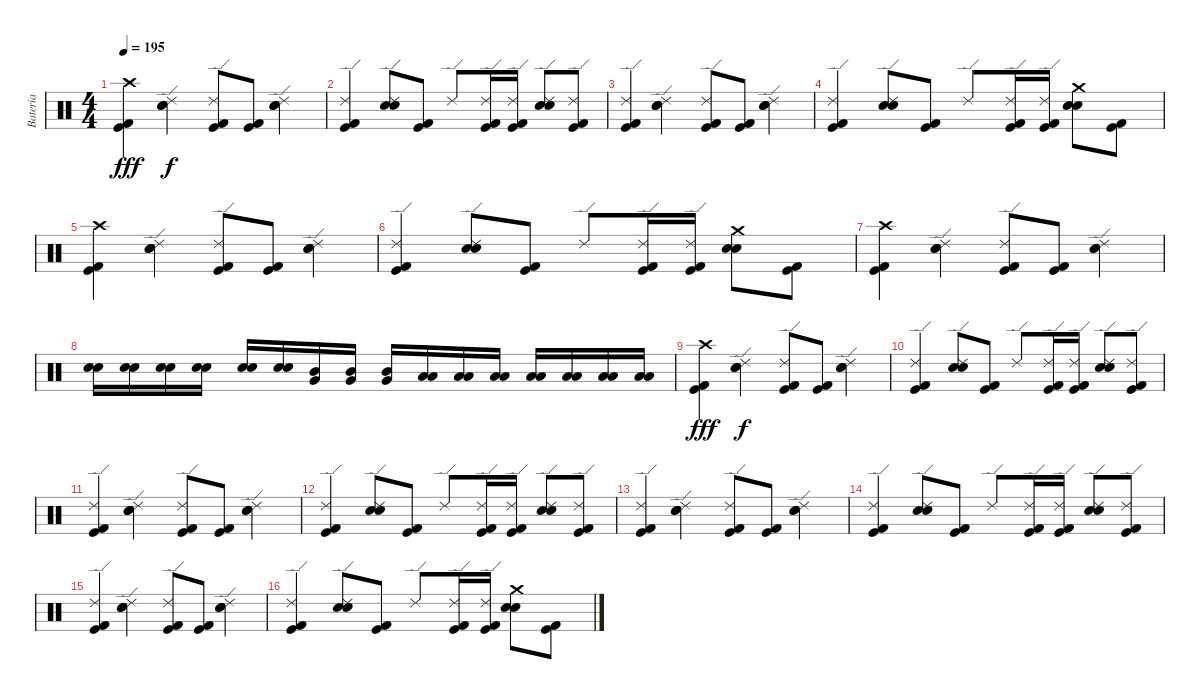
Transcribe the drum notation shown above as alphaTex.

\track ("Bateria" "Bateria") {instrument percussion}
\staff {score}
\articulation defaults
\ts (4 4)
\tempo 195
\clef neutral
\ks c
("Crash high (hit)" "Kick (hit) 2" "Kick (hit)").4{dy fff} ("Ride (edge) 2" "Electric Snare (hit)" "Snare (hit) 2").4{dy f} ("Ride (edge) 2" "Kick (hit) 2" "Kick (hit)").8 ("Kick (hit) 2" "Kick (hit)").8 ("Ride (edge) 2" "Electric Snare (hit)" "Snare (hit) 2").4 |
("Ride (edge) 2" "Kick (hit) 2" "Kick (hit)").4 ("Ride (edge) 2" "Electric Snare (hit)" "Snare (hit) 2").8 ("Kick (hit) 2" "Kick (hit)").8 "Ride (edge) 2".8 ("Ride (edge) 2" "Kick (hit) 2" "Kick (hit)").16 ("Ride (edge) 2" "Kick (hit) 2" "Kick (hit)").16 ("Ride (edge) 2" "Electric Snare (hit)" "Snare (hit) 2").8 ("Ride (edge) 2" "Kick (hit) 2" "Kick (hit)").8 |
("Ride (edge) 2" "Kick (hit) 2" "Kick (hit)").4 ("Ride (edge) 2" "Electric Snare (hit)" "Snare (hit) 2").4 ("Ride (edge) 2" "Kick (hit) 2" "Kick (hit)").8 ("Kick (hit) 2" "Kick (hit)").8 ("Ride (edge) 2" "Electric Snare (hit)" "Snare (hit) 2").4 |
("Ride (edge) 2" "Kick (hit) 2" "Kick (hit)").4 ("Ride (edge) 2" "Electric Snare (hit)" "Snare (hit) 2").8 ("Kick (hit) 2" "Kick (hit)").8 "Ride (edge) 2".8 ("Ride (edge) 2" "Kick (hit) 2" "Kick (hit)").16 ("Ride (edge) 2" "Kick (hit) 2" "Kick (hit)").16 ("Crash medium (hit)" "Electric Snare (hit)" "Snare (hit) 2").8 ("Kick (hit) 2" "Kick (hit)").8 |
("Crash high (hit)" "Kick (hit) 2" "Kick (hit)").4 ("Ride (edge) 2" "Electric Snare (hit)" "Snare (hit) 2").4 ("Ride (edge) 2" "Kick (hit) 2" "Kick (hit)").8 ("Kick (hit) 2" "Kick (hit)").8 ("Ride (edge) 2" "Electric Snare (hit)" "Snare (hit) 2").4 |
("Ride (edge) 2" "Kick (hit) 2" "Kick (hit)").4 ("Ride (edge) 2" "Electric Snare (hit)" "Snare (hit) 2").8 ("Kick (hit) 2" "Kick (hit)").8 "Ride (edge) 2".8 ("Ride (edge) 2" "Kick (hit) 2" "Kick (hit)").16 ("Ride (edge) 2" "Kick (hit) 2" "Kick (hit)").16 ("Crash medium (hit)" "Electric Snare (hit)" "Snare (hit) 2").8 ("Kick (hit) 2" "Kick (hit)").8 |
("Crash high (hit)" "Kick (hit) 2" "Kick (hit)").4 ("Ride (edge) 2" "Electric Snare (hit)" "Snare (hit) 2").4 ("Ride (edge) 2" "Kick (hit) 2" "Kick (hit)").8 ("Kick (hit) 2" "Kick (hit)").8 ("Ride (edge) 2" "Electric Snare (hit)" "Snare (hit) 2").4 |
("Electric Snare (hit)" "Snare (hit) 2").16 ("Electric Snare (hit)" "Snare (hit) 2").16 ("Electric Snare (hit)" "Snare (hit) 2").16 ("Electric Snare (hit)" "Snare (hit) 2").16 ("Electric Snare (hit)" "Snare (hit) 2").16 ("Electric Snare (hit)" "Snare (hit) 2").16 ("Mid Tom (hit)" "Very Low Tom (hit)").16 ("Mid Tom (hit)" "Very Low Tom (hit)").16 ("Mid Tom (hit)" "Very Low Tom (hit)").16 ("Low Tom (hit)" "Low Floor Tom (hit)").16 ("Low Tom (hit)" "Low Floor Tom (hit)").16 ("Low Tom (hit)" "Low Floor Tom (hit)").16 ("Low Tom (hit)" "Low Floor Tom (hit)").16 ("Low Tom (hit)" "Low Floor Tom (hit)").16 ("Low Tom (hit)" "Low Floor Tom (hit)").16 ("Low Tom (hit)" "Low Floor Tom (hit)").16 |
("Crash high (hit)" "Kick (hit) 2" "Kick (hit)").4{dy fff} ("Ride (edge) 2" "Electric Snare (hit)" "Snare (hit) 2").4{dy f} ("Ride (edge) 2" "Kick (hit) 2" "Kick (hit)").8 ("Kick (hit) 2" "Kick (hit)").8 ("Ride (edge) 2" "Electric Snare (hit)" "Snare (hit) 2").4 |
("Ride (edge) 2" "Kick (hit) 2" "Kick (hit)").4 ("Ride (edge) 2" "Electric Snare (hit)" "Snare (hit) 2").8 ("Kick (hit) 2" "Kick (hit)").8 "Ride (edge) 2".8 ("Ride (edge) 2" "Kick (hit) 2" "Kick (hit)").16 ("Ride (edge) 2" "Kick (hit) 2" "Kick (hit)").16 ("Ride (edge) 2" "Electric Snare (hit)" "Snare (hit) 2").8 ("Ride (edge) 2" "Kick (hit) 2" "Kick (hit)").8 |
("Ride (edge) 2" "Kick (hit) 2" "Kick (hit)").4 ("Ride (edge) 2" "Electric Snare (hit)" "Snare (hit) 2").4 ("Ride (edge) 2" "Kick (hit) 2" "Kick (hit)").8 ("Kick (hit) 2" "Kick (hit)").8 ("Ride (edge) 2" "Electric Snare (hit)" "Snare (hit) 2").4 |
("Ride (edge) 2" "Kick (hit) 2" "Kick (hit)").4 ("Ride (edge) 2" "Electric Snare (hit)" "Snare (hit) 2").8 ("Kick (hit) 2" "Kick (hit)").8 "Ride (edge) 2".8 ("Ride (edge) 2" "Kick (hit) 2" "Kick (hit)").16 ("Ride (edge) 2" "Kick (hit) 2" "Kick (hit)").16 ("Ride (edge) 2" "Electric Snare (hit)" "Snare (hit) 2").8 ("Ride (edge) 2" "Kick (hit) 2" "Kick (hit)").8 |
("Ride (edge) 2" "Kick (hit) 2" "Kick (hit)").4 ("Ride (edge) 2" "Electric Snare (hit)" "Snare (hit) 2").4 ("Ride (edge) 2" "Kick (hit) 2" "Kick (hit)").8 ("Kick (hit) 2" "Kick (hit)").8 ("Ride (edge) 2" "Electric Snare (hit)" "Snare (hit) 2").4 |
("Ride (edge) 2" "Kick (hit) 2" "Kick (hit)").4 ("Ride (edge) 2" "Electric Snare (hit)" "Snare (hit) 2").8 ("Kick (hit) 2" "Kick (hit)").8 "Ride (edge) 2".8 ("Ride (edge) 2" "Kick (hit) 2" "Kick (hit)").16 ("Ride (edge) 2" "Kick (hit) 2" "Kick (hit)").16 ("Ride (edge) 2" "Electric Snare (hit)" "Snare (hit) 2").8 ("Ride (edge) 2" "Kick (hit) 2" "Kick (hit)").8 |
("Ride (edge) 2" "Kick (hit) 2" "Kick (hit)").4 ("Ride (edge) 2" "Electric Snare (hit)" "Snare (hit) 2").4 ("Ride (edge) 2" "Kick (hit) 2" "Kick (hit)").8 ("Kick (hit) 2" "Kick (hit)").8 ("Ride (edge) 2" "Electric Snare (hit)" "Snare (hit) 2").4 |
("Ride (edge) 2" "Kick (hit) 2" "Kick (hit)").4 ("Ride (edge) 2" "Electric Snare (hit)" "Snare (hit) 2").8 ("Kick (hit) 2" "Kick (hit)").8 "Ride (edge) 2".8 ("Ride (edge) 2" "Kick (hit) 2" "Kick (hit)").16 ("Ride (edge) 2" "Kick (hit) 2" "Kick (hit)").16 ("Crash medium (hit)" "Electric Snare (hit)" "Snare (hit) 2").8 ("Kick (hit) 2" "Kick (hit)").8
